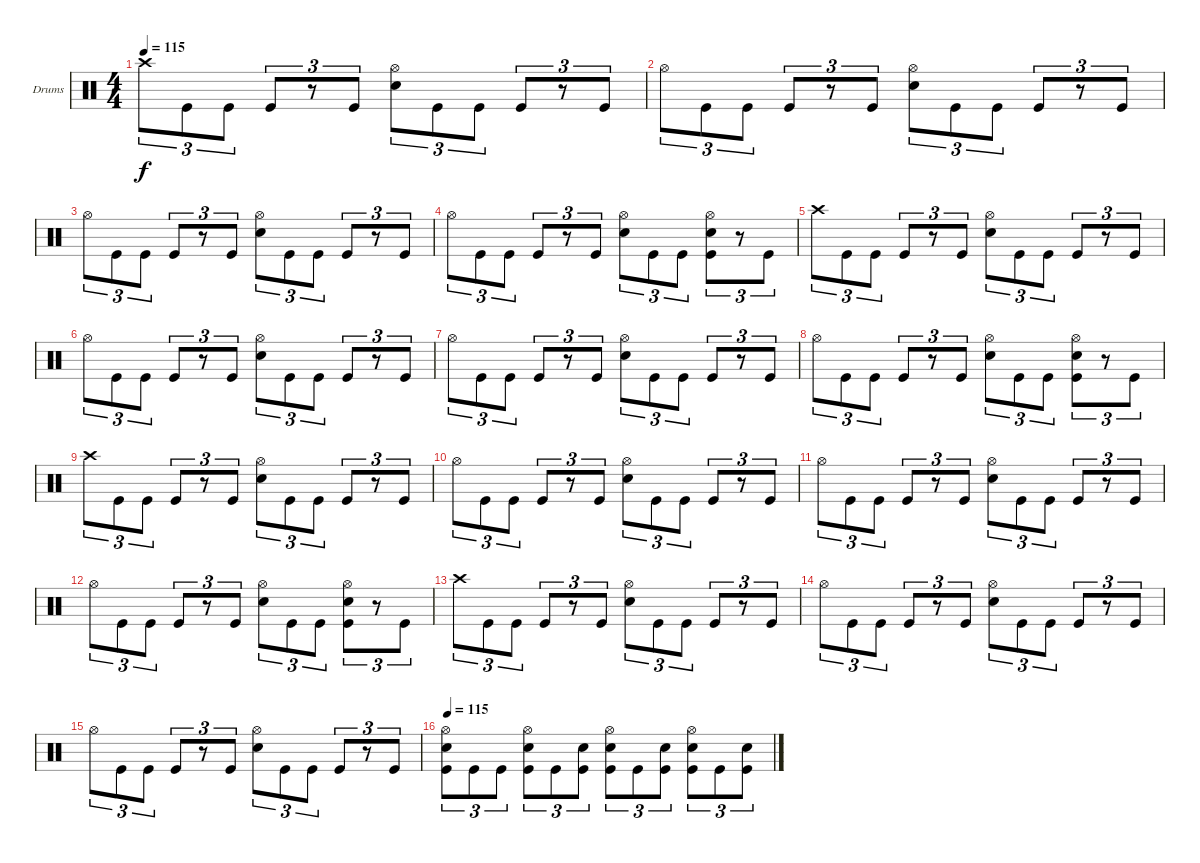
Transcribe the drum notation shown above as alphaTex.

\bracketExtendMode groupsimilarinstruments
\firstSystemTrackNameOrientation horizontal
\otherSystemsTrackNameOrientation horizontal
\track ("Kaleb - Drums" "Drums") {instrument percussion}
\staff {score}
\articulation defaults
\ts (4 4)
\tempo 115
\clef neutral
\ks c "Crash high (hit)".8{tu (3 2) dy f} "Kick (hit)".8{tu (3 2)} "Kick (hit)".8{tu (3 2)} "Kick (hit)".8{tu (3 2)}
r.8{tu (3 2)} "Kick (hit)".8{tu (3 2)} ("Snare (hit) 2" "Hi-Hat (open)").8{tu (3 2)} "Kick (hit)".8{tu (3 2)} "Kick (hit)".8{tu (3 2)} "Kick (hit)".8{tu (3 2)} r.8{tu (3 2)} "Kick (hit)".8{tu (3 2)} |
"Hi-Hat (open)".8{tu (3 2)} "Kick (hit)".8{tu (3 2)} "Kick (hit)".8{tu (3 2)} "Kick (hit)".8{tu (3 2)} r.8{tu (3 2)} "Kick (hit)".8{tu (3 2)} ("Snare (hit) 2" "Hi-Hat (open)").8{tu (3 2)} "Kick (hit)".8{tu (3 2)} "Kick (hit)".8{tu (3 2)} "Kick (hit)".8{tu (3 2)} r.8{tu (3 2)} "Kick (hit)".8{tu (3 2)} |
"Hi-Hat (open)".8{tu (3 2)} "Kick (hit)".8{tu (3 2)} "Kick (hit)".8{tu (3 2)} "Kick (hit)".8{tu (3 2)} r.8{tu (3 2)} "Kick (hit)".8{tu (3 2)} ("Snare (hit) 2" "Hi-Hat (open)").8{tu (3 2)} "Kick (hit)".8{tu (3 2)} "Kick (hit)".8{tu (3 2)} "Kick (hit)".8{tu (3 2)} r.8{tu (3 2)} "Kick (hit)".8{tu (3 2)} |
"Hi-Hat (open)".8{tu (3 2)} "Kick (hit)".8{tu (3 2)} "Kick (hit)".8{tu (3 2)} "Kick (hit)".8{tu (3 2)} r.8{tu (3 2)} "Kick (hit)".8{tu (3 2)} ("Snare (hit) 2" "Hi-Hat (open)").8{tu (3 2)} "Kick (hit)".8{tu (3 2)} "Kick (hit)".8{tu (3 2)} ("Kick (hit)" "Snare (hit) 2" "Hi-Hat (open)").8{tu (3 2)} r.8{tu (3 2)} "Kick (hit)".8{tu (3 2)} |
"Crash high (hit)".8{tu (3 2)} "Kick (hit)".8{tu (3 2)} "Kick (hit)".8{tu (3 2)} "Kick (hit)".8{tu (3 2)} r.8{tu (3 2)} "Kick (hit)".8{tu (3 2)} ("Snare (hit) 2" "Hi-Hat (open)").8{tu (3 2)} "Kick (hit)".8{tu (3 2)} "Kick (hit)".8{tu (3 2)} "Kick (hit)".8{tu (3 2)} r.8{tu (3 2)} "Kick (hit)".8{tu (3 2)} |
"Hi-Hat (open)".8{tu (3 2)} "Kick (hit)".8{tu (3 2)} "Kick (hit)".8{tu (3 2)} "Kick (hit)".8{tu (3 2)} r.8{tu (3 2)} "Kick (hit)".8{tu (3 2)} ("Snare (hit) 2" "Hi-Hat (open)").8{tu (3 2)} "Kick (hit)".8{tu (3 2)} "Kick (hit)".8{tu (3 2)} "Kick (hit)".8{tu (3 2)} r.8{tu (3 2)} "Kick (hit)".8{tu (3 2)} |
"Hi-Hat (open)".8{tu (3 2)} "Kick (hit)".8{tu (3 2)} "Kick (hit)".8{tu (3 2)} "Kick (hit)".8{tu (3 2)} r.8{tu (3 2)} "Kick (hit)".8{tu (3 2)} ("Snare (hit) 2" "Hi-Hat (open)").8{tu (3 2)} "Kick (hit)".8{tu (3 2)} "Kick (hit)".8{tu (3 2)} "Kick (hit)".8{tu (3 2)} r.8{tu (3 2)} "Kick (hit)".8{tu (3 2)} |
"Hi-Hat (open)".8{tu (3 2)} "Kick (hit)".8{tu (3 2)} "Kick (hit)".8{tu (3 2)} "Kick (hit)".8{tu (3 2)} r.8{tu (3 2)} "Kick (hit)".8{tu (3 2)} ("Snare (hit) 2" "Hi-Hat (open)").8{tu (3 2)} "Kick (hit)".8{tu (3 2)} "Kick (hit)".8{tu (3 2)} ("Kick (hit)" "Snare (hit) 2" "Hi-Hat (open)").8{tu (3 2)} r.8{tu (3 2)} "Kick (hit)".8{tu (3 2)} |
"Crash high (hit)".8{tu (3 2)} "Kick (hit)".8{tu (3 2)} "Kick (hit)".8{tu (3 2)} "Kick (hit)".8{tu (3 2)} r.8{tu (3 2)} "Kick (hit)".8{tu (3 2)} ("Snare (hit) 2" "Hi-Hat (open)").8{tu (3 2)} "Kick (hit)".8{tu (3 2)} "Kick (hit)".8{tu (3 2)} "Kick (hit)".8{tu (3 2)} r.8{tu (3 2)} "Kick (hit)".8{tu (3 2)} |
"Hi-Hat (open)".8{tu (3 2)} "Kick (hit)".8{tu (3 2)} "Kick (hit)".8{tu (3 2)} "Kick (hit)".8{tu (3 2)} r.8{tu (3 2)} "Kick (hit)".8{tu (3 2)} ("Snare (hit) 2" "Hi-Hat (open)").8{tu (3 2)} "Kick (hit)".8{tu (3 2)} "Kick (hit)".8{tu (3 2)} "Kick (hit)".8{tu (3 2)} r.8{tu (3 2)} "Kick (hit)".8{tu (3 2)} |
"Hi-Hat (open)".8{tu (3 2)} "Kick (hit)".8{tu (3 2)} "Kick (hit)".8{tu (3 2)} "Kick (hit)".8{tu (3 2)} r.8{tu (3 2)} "Kick (hit)".8{tu (3 2)} ("Snare (hit) 2" "Hi-Hat (open)").8{tu (3 2)} "Kick (hit)".8{tu (3 2)} "Kick (hit)".8{tu (3 2)} "Kick (hit)".8{tu (3 2)} r.8{tu (3 2)} "Kick (hit)".8{tu (3 2)} |
"Hi-Hat (open)".8{tu (3 2)} "Kick (hit)".8{tu (3 2)} "Kick (hit)".8{tu (3 2)} "Kick (hit)".8{tu (3 2)} r.8{tu (3 2)} "Kick (hit)".8{tu (3 2)} ("Snare (hit) 2" "Hi-Hat (open)").8{tu (3 2)} "Kick (hit)".8{tu (3 2)} "Kick (hit)".8{tu (3 2)} ("Kick (hit)" "Snare (hit) 2" "Hi-Hat (open)").8{tu (3 2)} r.8{tu (3 2)} "Kick (hit)".8{tu (3 2)} |
"Crash high (hit)".8{tu (3 2)} "Kick (hit)".8{tu (3 2)} "Kick (hit)".8{tu (3 2)} "Kick (hit)".8{tu (3 2)} r.8{tu (3 2)} "Kick (hit)".8{tu (3 2)} ("Snare (hit) 2" "Hi-Hat (open)").8{tu (3 2)} "Kick (hit)".8{tu (3 2)} "Kick (hit)".8{tu (3 2)} "Kick (hit)".8{tu (3 2)} r.8{tu (3 2)} "Kick (hit)".8{tu (3 2)} |
"Hi-Hat (open)".8{tu (3 2)} "Kick (hit)".8{tu (3 2)} "Kick (hit)".8{tu (3 2)} "Kick (hit)".8{tu (3 2)} r.8{tu (3 2)} "Kick (hit)".8{tu (3 2)} ("Snare (hit) 2" "Hi-Hat (open)").8{tu (3 2)} "Kick (hit)".8{tu (3 2)} "Kick (hit)".8{tu (3 2)} "Kick (hit)".8{tu (3 2)} r.8{tu (3 2)} "Kick (hit)".8{tu (3 2)} |
"Hi-Hat (open)".8{tu (3 2)} "Kick (hit)".8{tu (3 2)} "Kick (hit)".8{tu (3 2)} "Kick (hit)".8{tu (3 2)} r.8{tu (3 2)} "Kick (hit)".8{tu (3 2)} ("Snare (hit) 2" "Hi-Hat (open)").8{tu (3 2)} "Kick (hit)".8{tu (3 2)} "Kick (hit)".8{tu (3 2)} "Kick (hit)".8{tu (3 2)} r.8{tu (3 2)} "Kick (hit)".8{tu (3 2)} |
\tempo (115 0.00625)
("Hi-Hat (open)" "Kick (hit)" "Snare (hit) 2").8{tu (3 2)} "Kick (hit)".8{tu (3 2)} "Kick (hit)".8{tu (3 2)} ("Kick (hit)" "Snare (hit) 2" "Hi-Hat (open)").8{tu (3 2)} "Kick (hit)".8{tu (3 2)} ("Kick (hit)" "Snare (hit) 2").8{tu (3 2)} ("Snare (hit) 2" "Hi-Hat (open)" "Kick (hit)").8{tu (3 2)} "Kick (hit)".8{tu (3 2)} ("Kick (hit)" "Snare (hit) 2").8{tu (3 2)} ("Kick (hit)" "Snare (hit) 2" "Hi-Hat (open)").8{tu (3 2)} "Kick (hit)".8{tu (3 2)} ("Kick (hit)" "Snare (hit) 2").8{tu (3 2)}
